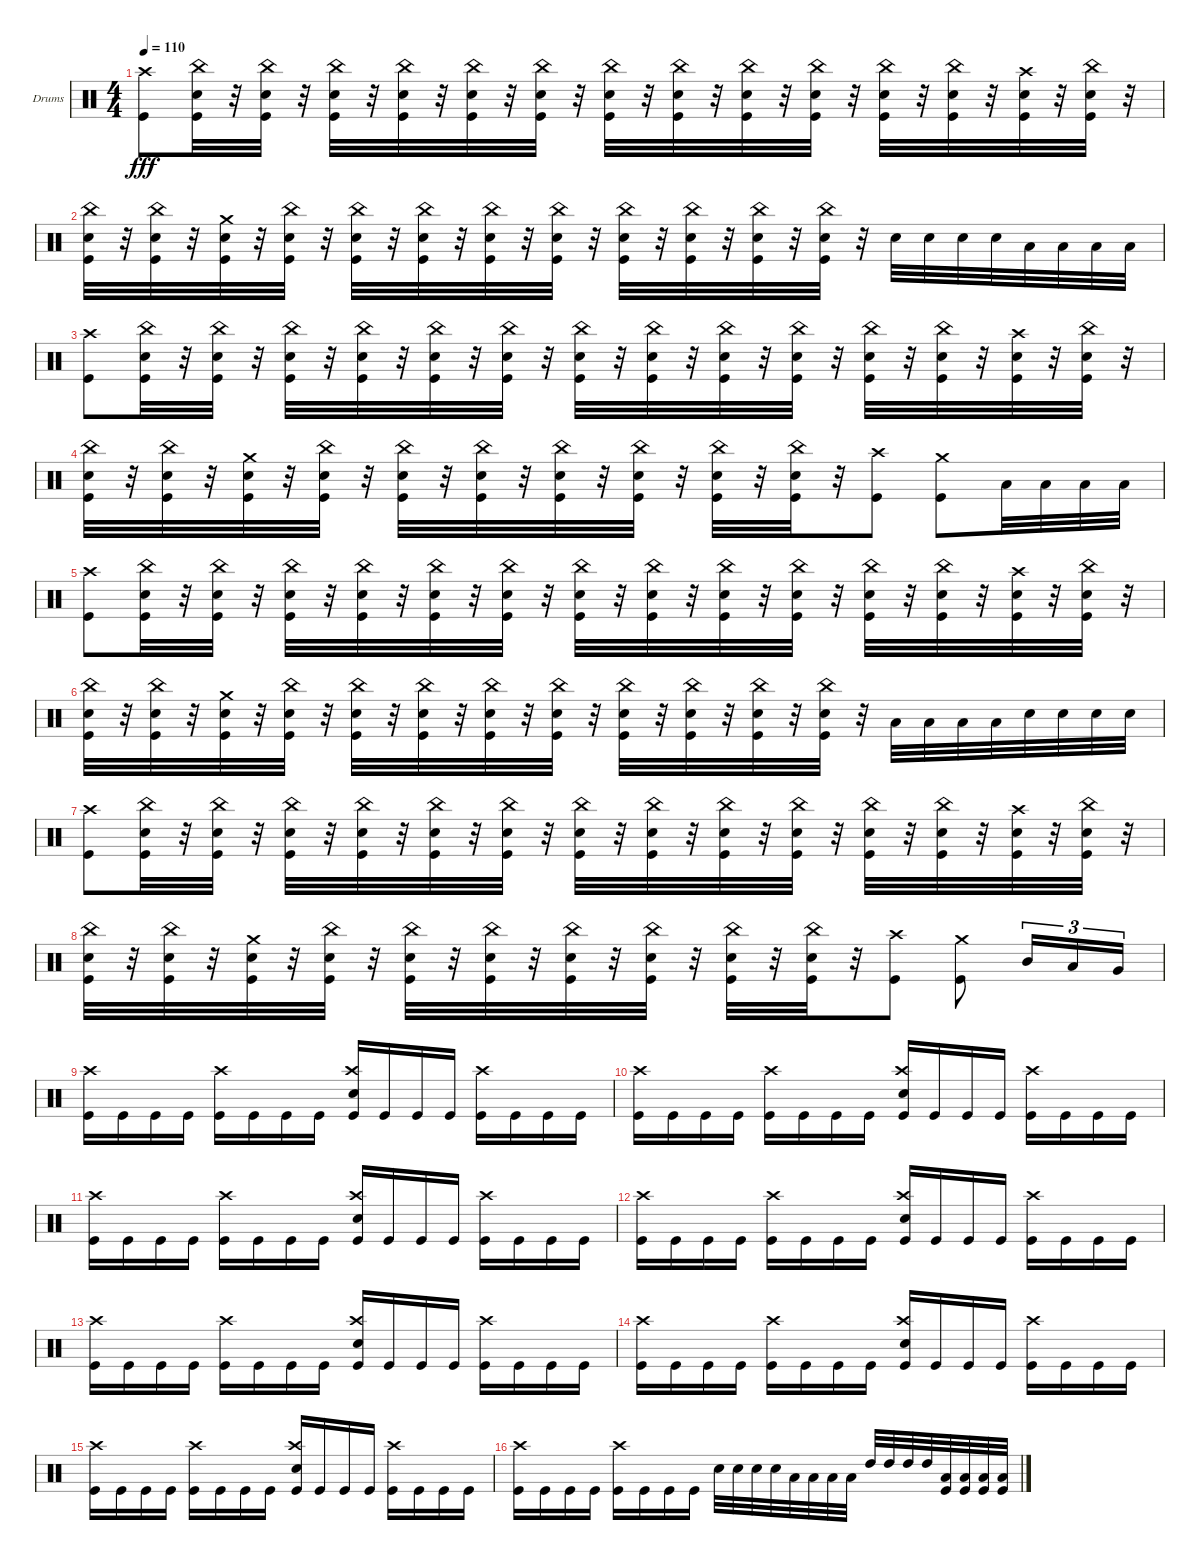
\bracketExtendMode groupsimilarinstruments
\firstSystemTrackNameOrientation horizontal
\otherSystemsTrackNameOrientation horizontal
\track ("Drumkit" "Drums") {instrument percussion}
\staff {score}
\articulation defaults
\ts (4 4)
\tempo 110
\clef neutral
\ks c
("Kick (hit)" "Crash high (hit)").8{dy fff} ("Kick (hit)" "Snare (hit) 2" "China (hit)").32 r.32 ("Kick (hit)" "Snare (hit) 2" "China (hit)").32 r.32 ("Kick (hit)" "Snare (hit) 2" "China (hit)").32 r.32 ("Kick (hit)" "Snare (hit) 2" "China (hit)").32 r.32 ("Kick (hit)" "Snare (hit) 2" "China (hit)").32 r.32 ("Kick (hit)" "Snare (hit) 2" "China (hit)").32 r.32 ("Kick (hit)" "Snare (hit) 2" "China (hit)").32 r.32 ("Kick (hit)" "Snare (hit) 2" "China (hit)").32 r.32 ("Kick (hit)" "Snare (hit) 2" "China (hit)").32 r.32 ("Kick (hit)" "Snare (hit) 2" "China (hit)").32 r.32 ("Kick (hit)" "Snare (hit) 2" "China (hit)").32 r.32 ("Kick (hit)" "Snare (hit) 2" "China (hit)").32 r.32 ("Kick (hit)" "Snare (hit) 2" "Crash high (hit)").32 r.32 ("Kick (hit)" "Snare (hit) 2" "China (hit)").32 r.32 |
("Kick (hit)" "Snare (hit) 2" "China (hit)").32 r.32 ("Kick (hit)" "Snare (hit) 2" "China (hit)").32 r.32 ("Kick (hit)" "Snare (hit) 2" "Crash medium (hit)").32 r.32 ("Kick (hit)" "Snare (hit) 2" "China (hit)").32 r.32 ("Kick (hit)" "Snare (hit) 2" "China (hit)").32 r.32 ("Kick (hit)" "Snare (hit) 2" "China (hit)").32 r.32 ("Kick (hit)" "Snare (hit) 2" "China (hit)").32 r.32 ("Kick (hit)" "Snare (hit) 2" "China (hit)").32 r.32 ("Kick (hit)" "Snare (hit) 2" "China (hit)").32 r.32 ("Kick (hit)" "Snare (hit) 2" "China (hit)").32 r.32 ("Kick (hit)" "Snare (hit) 2" "China (hit)").32 r.32 ("Kick (hit)" "Snare (hit) 2" "China (hit)").32 r.32 "Snare (hit) 2".32 "Snare (hit) 2".32 "Snare (hit) 2".32 "Snare (hit) 2".32 "Low Tom (hit)".32 "Low Tom (hit)".32 "Low Tom (hit)".32 "Low Tom (hit)".32 |
("Kick (hit)" "Crash high (hit)").8 ("Kick (hit)" "Snare (hit) 2" "China (hit)").32 r.32 ("Kick (hit)" "Snare (hit) 2" "China (hit)").32 r.32 ("Kick (hit)" "Snare (hit) 2" "China (hit)").32 r.32 ("Kick (hit)" "Snare (hit) 2" "China (hit)").32 r.32 ("Kick (hit)" "Snare (hit) 2" "China (hit)").32 r.32 ("Kick (hit)" "Snare (hit) 2" "China (hit)").32 r.32 ("Kick (hit)" "Snare (hit) 2" "China (hit)").32 r.32 ("Kick (hit)" "Snare (hit) 2" "China (hit)").32 r.32 ("Kick (hit)" "Snare (hit) 2" "China (hit)").32 r.32 ("Kick (hit)" "Snare (hit) 2" "China (hit)").32 r.32 ("Kick (hit)" "Snare (hit) 2" "China (hit)").32 r.32 ("Kick (hit)" "Snare (hit) 2" "China (hit)").32 r.32 ("Kick (hit)" "Snare (hit) 2" "Crash high (hit)").32 r.32 ("Kick (hit)" "Snare (hit) 2" "China (hit)").32 r.32 |
("Kick (hit)" "Snare (hit) 2" "China (hit)").32 r.32 ("Kick (hit)" "Snare (hit) 2" "China (hit)").32 r.32 ("Kick (hit)" "Snare (hit) 2" "Crash medium (hit)").32 r.32 ("Kick (hit)" "Snare (hit) 2" "China (hit)").32 r.32 ("Kick (hit)" "Snare (hit) 2" "China (hit)").32 r.32 ("Kick (hit)" "Snare (hit) 2" "China (hit)").32 r.32 ("Kick (hit)" "Snare (hit) 2" "China (hit)").32 r.32 ("Kick (hit)" "Snare (hit) 2" "China (hit)").32 r.32 ("Kick (hit)" "Snare (hit) 2" "China (hit)").32 r.32 ("Kick (hit)" "Snare (hit) 2" "China (hit)").32 r.32 ("Kick (hit)" "Crash high (hit)").8 ("Kick (hit)" "Crash medium (hit)").8 "Low Tom (hit)".32 "Low Tom (hit)".32 "Low Tom (hit)".32 "Low Tom (hit)".32 |
("Kick (hit)" "Crash high (hit)").8 ("Kick (hit)" "Snare (hit) 2" "China (hit)").32 r.32 ("Kick (hit)" "Snare (hit) 2" "China (hit)").32 r.32 ("Kick (hit)" "Snare (hit) 2" "China (hit)").32 r.32 ("Kick (hit)" "Snare (hit) 2" "China (hit)").32 r.32 ("Kick (hit)" "Snare (hit) 2" "China (hit)").32 r.32 ("Kick (hit)" "Snare (hit) 2" "China (hit)").32 r.32 ("Kick (hit)" "Snare (hit) 2" "China (hit)").32 r.32 ("Kick (hit)" "Snare (hit) 2" "China (hit)").32 r.32 ("Kick (hit)" "Snare (hit) 2" "China (hit)").32 r.32 ("Kick (hit)" "Snare (hit) 2" "China (hit)").32 r.32 ("Kick (hit)" "Snare (hit) 2" "China (hit)").32 r.32 ("Kick (hit)" "Snare (hit) 2" "China (hit)").32 r.32 ("Kick (hit)" "Snare (hit) 2" "Crash high (hit)").32 r.32 ("Kick (hit)" "Snare (hit) 2" "China (hit)").32 r.32 |
("Kick (hit)" "Snare (hit) 2" "China (hit)").32 r.32 ("Kick (hit)" "Snare (hit) 2" "China (hit)").32 r.32 ("Kick (hit)" "Snare (hit) 2" "Crash medium (hit)").32 r.32 ("Kick (hit)" "Snare (hit) 2" "China (hit)").32 r.32 ("Kick (hit)" "Snare (hit) 2" "China (hit)").32 r.32 ("Kick (hit)" "Snare (hit) 2" "China (hit)").32 r.32 ("Kick (hit)" "Snare (hit) 2" "China (hit)").32 r.32 ("Kick (hit)" "Snare (hit) 2" "China (hit)").32 r.32 ("Kick (hit)" "Snare (hit) 2" "China (hit)").32 r.32 ("Kick (hit)" "Snare (hit) 2" "China (hit)").32 r.32 ("Kick (hit)" "Snare (hit) 2" "China (hit)").32 r.32 ("Kick (hit)" "Snare (hit) 2" "China (hit)").32 r.32 "Low Tom (hit)".32 "Low Tom (hit)".32 "Low Tom (hit)".32 "Low Tom (hit)".32 "Snare (hit) 2".32 "Snare (hit) 2".32 "Snare (hit) 2".32 "Snare (hit) 2".32 |
("Kick (hit)" "Crash high (hit)").8 ("Kick (hit)" "Snare (hit) 2" "China (hit)").32 r.32 ("Kick (hit)" "Snare (hit) 2" "China (hit)").32 r.32 ("Kick (hit)" "Snare (hit) 2" "China (hit)").32 r.32 ("Kick (hit)" "Snare (hit) 2" "China (hit)").32 r.32 ("Kick (hit)" "Snare (hit) 2" "China (hit)").32 r.32 ("Kick (hit)" "Snare (hit) 2" "China (hit)").32 r.32 ("Kick (hit)" "Snare (hit) 2" "China (hit)").32 r.32 ("Kick (hit)" "Snare (hit) 2" "China (hit)").32 r.32 ("Kick (hit)" "Snare (hit) 2" "China (hit)").32 r.32 ("Kick (hit)" "Snare (hit) 2" "China (hit)").32 r.32 ("Kick (hit)" "Snare (hit) 2" "China (hit)").32 r.32 ("Kick (hit)" "Snare (hit) 2" "China (hit)").32 r.32 ("Kick (hit)" "Snare (hit) 2" "Crash high (hit)").32 r.32 ("Kick (hit)" "Snare (hit) 2" "China (hit)").32 r.32 |
("Kick (hit)" "Snare (hit) 2" "China (hit)").32 r.32 ("Kick (hit)" "Snare (hit) 2" "China (hit)").32 r.32 ("Kick (hit)" "Snare (hit) 2" "Crash medium (hit)").32 r.32 ("Kick (hit)" "Snare (hit) 2" "China (hit)").32 r.32 ("Kick (hit)" "Snare (hit) 2" "China (hit)").32 r.32 ("Kick (hit)" "Snare (hit) 2" "China (hit)").32 r.32 ("Kick (hit)" "Snare (hit) 2" "China (hit)").32 r.32 ("Kick (hit)" "Snare (hit) 2" "China (hit)").32 r.32 ("Kick (hit)" "Snare (hit) 2" "China (hit)").32 r.32 ("Kick (hit)" "Snare (hit) 2" "China (hit)").32 r.32 ("Kick (hit)" "Crash high (hit)").8 ("Kick (hit)" "Crash medium (hit)").8 "Mid Tom (hit)".16{tu (3 2)} "Low Tom (hit)".16{tu (3 2)} "Very Low Tom (hit)".16{tu (3 2)} |
("Kick (hit)" "Crash high (hit)").16 "Kick (hit)".16 "Kick (hit)".16 "Kick (hit)".16 ("Kick (hit)" "Crash high (hit)").16 "Kick (hit)".16 "Kick (hit)".16 "Kick (hit)".16 ("Kick (hit)" "Crash high (hit)" "Snare (hit) 2").16 "Kick (hit)".16 "Kick (hit)".16 "Kick (hit)".16 ("Kick (hit)" "Crash high (hit)").16 "Kick (hit)".16 "Kick (hit)".16 "Kick (hit)".16 |
("Kick (hit)" "Crash high (hit)").16 "Kick (hit)".16 "Kick (hit)".16 "Kick (hit)".16 ("Kick (hit)" "Crash high (hit)").16 "Kick (hit)".16 "Kick (hit)".16 "Kick (hit)".16 ("Kick (hit)" "Crash high (hit)" "Snare (hit) 2").16 "Kick (hit)".16 "Kick (hit)".16 "Kick (hit)".16 ("Kick (hit)" "Crash high (hit)").16 "Kick (hit)".16 "Kick (hit)".16 "Kick (hit)".16 |
("Kick (hit)" "Crash high (hit)").16 "Kick (hit)".16 "Kick (hit)".16 "Kick (hit)".16 ("Kick (hit)" "Crash high (hit)").16 "Kick (hit)".16 "Kick (hit)".16 "Kick (hit)".16 ("Kick (hit)" "Crash high (hit)" "Snare (hit) 2").16 "Kick (hit)".16 "Kick (hit)".16 "Kick (hit)".16 ("Kick (hit)" "Crash high (hit)").16 "Kick (hit)".16 "Kick (hit)".16 "Kick (hit)".16 |
("Kick (hit)" "Crash high (hit)").16 "Kick (hit)".16 "Kick (hit)".16 "Kick (hit)".16 ("Kick (hit)" "Crash high (hit)").16 "Kick (hit)".16 "Kick (hit)".16 "Kick (hit)".16 ("Kick (hit)" "Crash high (hit)" "Snare (hit) 2").16 "Kick (hit)".16 "Kick (hit)".16 "Kick (hit)".16 ("Kick (hit)" "Crash high (hit)").16 "Kick (hit)".16 "Kick (hit)".16 "Kick (hit)".16 |
("Kick (hit)" "Crash high (hit)").16 "Kick (hit)".16 "Kick (hit)".16 "Kick (hit)".16 ("Kick (hit)" "Crash high (hit)").16 "Kick (hit)".16 "Kick (hit)".16 "Kick (hit)".16 ("Kick (hit)" "Crash high (hit)" "Snare (hit) 2").16 "Kick (hit)".16 "Kick (hit)".16 "Kick (hit)".16 ("Kick (hit)" "Crash high (hit)").16 "Kick (hit)".16 "Kick (hit)".16 "Kick (hit)".16 |
("Kick (hit)" "Crash high (hit)").16 "Kick (hit)".16 "Kick (hit)".16 "Kick (hit)".16 ("Kick (hit)" "Crash high (hit)").16 "Kick (hit)".16 "Kick (hit)".16 "Kick (hit)".16 ("Kick (hit)" "Crash high (hit)" "Snare (hit) 2").16 "Kick (hit)".16 "Kick (hit)".16 "Kick (hit)".16 ("Kick (hit)" "Crash high (hit)").16 "Kick (hit)".16 "Kick (hit)".16 "Kick (hit)".16 |
("Kick (hit)" "Crash high (hit)").16 "Kick (hit)".16 "Kick (hit)".16 "Kick (hit)".16 ("Kick (hit)" "Crash high (hit)").16 "Kick (hit)".16 "Kick (hit)".16 "Kick (hit)".16 ("Kick (hit)" "Crash high (hit)" "Snare (hit) 2").16 "Kick (hit)".16 "Kick (hit)".16 "Kick (hit)".16 ("Kick (hit)" "Crash high (hit)").16 "Kick (hit)".16 "Kick (hit)".16 "Kick (hit)".16 |
("Kick (hit)" "Crash high (hit)").16 "Kick (hit)".16 "Kick (hit)".16 "Kick (hit)".16 ("Kick (hit)" "Crash high (hit)").16 "Kick (hit)".16 "Kick (hit)".16 "Kick (hit)".16 "Snare (hit) 2".32 "Snare (hit) 2".32 "Snare (hit) 2".32 "Snare (hit) 2".32 "Low Tom (hit)".32 "Low Tom (hit)".32 "Low Tom (hit)".32 "Low Tom (hit)".32 "High Tom (hit)".32 "High Tom (hit)".32 "High Tom (hit)".32 "High Tom (hit)".32 ("Low Tom (hit)" "Kick (hit)").32 ("Low Tom (hit)" "Kick (hit)").32 ("Low Tom (hit)" "Kick (hit)").32 ("Low Tom (hit)" "Kick (hit)").32
